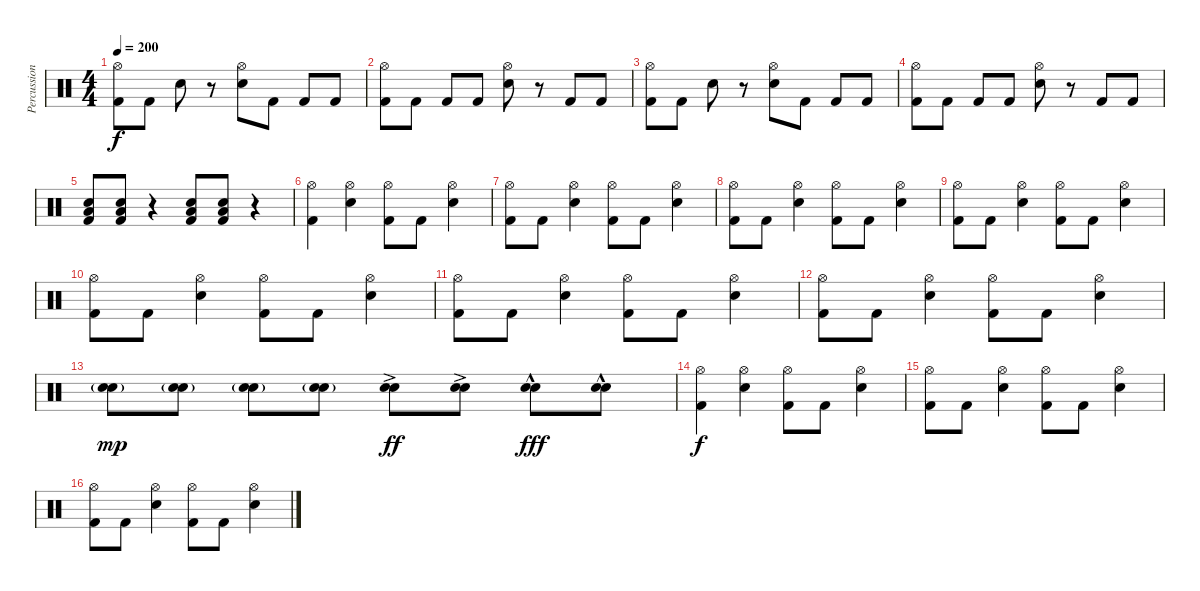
\track ("Percussion" "Percussion") {instrument percussion}
\staff {score}
\articulation defaults
\ts (4 4)
\tempo 200
\clef neutral
\ks c
("Hi-Hat (open)" "Kick (hit) 2").8{dy f} "Kick (hit) 2".8 "Electric Snare (hit)".8 r.8 ("Hi-Hat (open)" "Electric Snare (hit)").8 "Kick (hit) 2".8 "Kick (hit) 2".8 "Kick (hit) 2".8 |
("Hi-Hat (open)" "Kick (hit) 2").8 "Kick (hit) 2".8 "Kick (hit) 2".8 "Kick (hit) 2".8 ("Hi-Hat (open)" "Electric Snare (hit)").8 r.8 "Kick (hit) 2".8 "Kick (hit) 2".8 |
("Hi-Hat (open)" "Kick (hit) 2").8 "Kick (hit) 2".8 "Electric Snare (hit)".8 r.8 ("Hi-Hat (open)" "Electric Snare (hit)").8 "Kick (hit) 2".8 "Kick (hit) 2".8 "Kick (hit) 2".8 |
("Hi-Hat (open)" "Kick (hit) 2").8 "Kick (hit) 2".8 "Kick (hit) 2".8 "Kick (hit) 2".8 ("Hi-Hat (open)" "Electric Snare (hit)").8 r.8 "Kick (hit) 2".8 "Kick (hit) 2".8 |
("Low Tom (hit)" "Electric Snare (hit)" "Kick (hit) 2").8 ("Low Tom (hit)" "Electric Snare (hit)" "Kick (hit) 2").8 r.4 ("Low Tom (hit)" "Electric Snare (hit)" "Kick (hit) 2").8 ("Low Tom (hit)" "Electric Snare (hit)" "Kick (hit) 2").8 r.4 |
("Hi-Hat (open)" "Kick (hit) 2").4 ("Hi-Hat (open)" "Electric Snare (hit)").4 ("Hi-Hat (open)" "Kick (hit) 2").8 "Kick (hit) 2".8 ("Hi-Hat (open)" "Electric Snare (hit)").4 |
("Hi-Hat (open)" "Kick (hit) 2").8 "Kick (hit) 2".8 ("Hi-Hat (open)" "Electric Snare (hit)").4 ("Hi-Hat (open)" "Kick (hit) 2").8 "Kick (hit) 2".8 ("Hi-Hat (open)" "Electric Snare (hit)").4 |
("Hi-Hat (open)" "Kick (hit) 2").8 "Kick (hit) 2".8 ("Hi-Hat (open)" "Electric Snare (hit)").4 ("Hi-Hat (open)" "Kick (hit) 2").8 "Kick (hit) 2".8 ("Hi-Hat (open)" "Electric Snare (hit)").4 |
("Hi-Hat (open)" "Kick (hit) 2").8 "Kick (hit) 2".8 ("Hi-Hat (open)" "Electric Snare (hit)").4 ("Hi-Hat (open)" "Kick (hit) 2").8 "Kick (hit) 2".8 ("Hi-Hat (open)" "Electric Snare (hit)").4 |
("Hi-Hat (open)" "Kick (hit) 2").8 "Kick (hit) 2".8 ("Hi-Hat (open)" "Electric Snare (hit)").4 ("Hi-Hat (open)" "Kick (hit) 2").8 "Kick (hit) 2".8 ("Hi-Hat (open)" "Electric Snare (hit)").4 |
("Hi-Hat (open)" "Kick (hit) 2").8 "Kick (hit) 2".8 ("Hi-Hat (open)" "Electric Snare (hit)").4 ("Hi-Hat (open)" "Kick (hit) 2").8 "Kick (hit) 2".8 ("Hi-Hat (open)" "Electric Snare (hit)").4 |
("Hi-Hat (open)" "Kick (hit) 2").8 "Kick (hit) 2".8 ("Hi-Hat (open)" "Electric Snare (hit)").4 ("Hi-Hat (open)" "Kick (hit) 2").8 "Kick (hit) 2".8 ("Hi-Hat (open)" "Electric Snare (hit)").4 |
("Electric Snare (hit)"{g} "Snare (hit) 2"{g}).8{dy mp} ("Electric Snare (hit)"{g} "Snare (hit) 2"{g}).8 ("Electric Snare (hit)"{g} "Snare (hit) 2"{g}).8 ("Electric Snare (hit)"{g} "Snare (hit) 2"{g}).8 ("Electric Snare (hit)"{ac} "Snare (hit) 2"{ac}).8{dy ff} ("Electric Snare (hit)"{ac} "Snare (hit) 2"{ac}).8 ("Electric Snare (hit)"{hac} "Snare (hit) 2"{hac}).8{dy fff} ("Electric Snare (hit)"{hac} "Snare (hit) 2"{hac}).8 |
("Hi-Hat (open)" "Kick (hit) 2").4{dy f} ("Hi-Hat (open)" "Electric Snare (hit)").4 ("Hi-Hat (open)" "Kick (hit) 2").8 "Kick (hit) 2".8 ("Hi-Hat (open)" "Electric Snare (hit)").4 |
("Hi-Hat (open)" "Kick (hit) 2").8 "Kick (hit) 2".8 ("Hi-Hat (open)" "Electric Snare (hit)").4 ("Hi-Hat (open)" "Kick (hit) 2").8 "Kick (hit) 2".8 ("Hi-Hat (open)" "Electric Snare (hit)").4 |
("Hi-Hat (open)" "Kick (hit) 2").8 "Kick (hit) 2".8 ("Hi-Hat (open)" "Electric Snare (hit)").4 ("Hi-Hat (open)" "Kick (hit) 2").8 "Kick (hit) 2".8 ("Hi-Hat (open)" "Electric Snare (hit)").4
